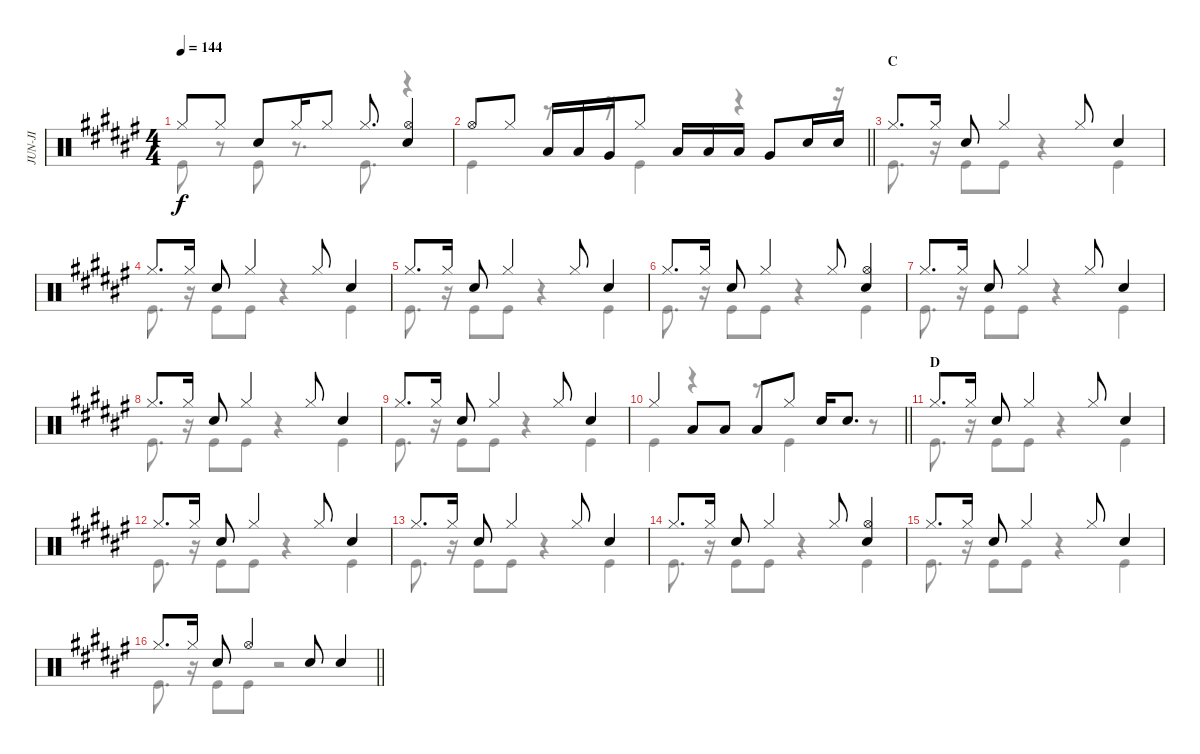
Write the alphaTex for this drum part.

\track ("JUN-JI" "JUN-JI") {instrument percussion}
\staff {score}
\articulation defaults
\voice
\ts (4 4)
\tempo 144
\clef neutral
\ks d#minor "Hi-Hat (closed)".8{dy f} "Hi-Hat (closed)".8 "Snare (hit) 2".8 "Hi-Hat (closed)".16 "Hi-Hat (closed)".8 "Hi-Hat (closed)".8{d}
("Hi-Hat (open)" "Snare (hit) 2").4 |
\barLineRight lightlight "Hi-Hat (open)".8 "Hi-Hat (closed)".8 "Low Tom (hit)".16 "Low Tom (hit)".16 "Very Low Tom (hit)".16 "Hi-Hat (closed)".8 "Low Tom (hit)".16 "Low Tom (hit)".16 "Low Tom (hit)".16 "Very Low Tom (hit)".8 "Snare (hit) 2".16 "Snare (hit) 2".16
|
\section ("" "C")
"Hi-Hat (closed)".8{d} "Hi-Hat (closed)".16 "Snare (hit) 2".8 "Hi-Hat (closed)".4 "Hi-Hat (closed)".8 "Snare (hit) 2".4 |
"Hi-Hat (closed)".8{d} "Hi-Hat (closed)".16 "Snare (hit) 2".8 "Hi-Hat (closed)".4 "Hi-Hat (closed)".8 "Snare (hit) 2".4 |
"Hi-Hat (closed)".8{d} "Hi-Hat (closed)".16 "Snare (hit) 2".8 "Hi-Hat (closed)".4 "Hi-Hat (closed)".8 "Snare (hit) 2".4 |
"Hi-Hat (closed)".8{d} "Hi-Hat (closed)".16 "Snare (hit) 2".8 "Hi-Hat (closed)".4 "Hi-Hat (closed)".8 ("Hi-Hat (open)" "Snare (hit) 2").4 |
"Hi-Hat (closed)".8{d} "Hi-Hat (closed)".16 "Snare (hit) 2".8 "Hi-Hat (closed)".4 "Hi-Hat (closed)".8 "Snare (hit) 2".4 |
"Hi-Hat (closed)".8{d} "Hi-Hat (closed)".16 "Snare (hit) 2".8 "Hi-Hat (closed)".4 "Hi-Hat (closed)".8 "Snare (hit) 2".4 |
"Hi-Hat (closed)".8{d} "Hi-Hat (closed)".16 "Snare (hit) 2".8 "Hi-Hat (closed)".4 "Hi-Hat (closed)".8 "Snare (hit) 2".4 |
\barLineRight lightlight "Hi-Hat (closed)".4 "Low Tom (hit)".8 "Low Tom (hit)".8 "Low Tom (hit)".8 "Hi-Hat (closed)".8 "Snare (hit) 2".16 "Snare (hit) 2".8{d}
|
\section ("" "D")
"Hi-Hat (closed)".8{d} "Hi-Hat (closed)".16 "Snare (hit) 2".8 "Hi-Hat (closed)".4 "Hi-Hat (closed)".8 "Snare (hit) 2".4 |
"Hi-Hat (closed)".8{d} "Hi-Hat (closed)".16 "Snare (hit) 2".8 "Hi-Hat (closed)".4 "Hi-Hat (closed)".8 "Snare (hit) 2".4 |
"Hi-Hat (closed)".8{d} "Hi-Hat (closed)".16 "Snare (hit) 2".8 "Hi-Hat (closed)".4 "Hi-Hat (closed)".8 "Snare (hit) 2".4 |
"Hi-Hat (closed)".8{d} "Hi-Hat (closed)".16 "Snare (hit) 2".8 "Hi-Hat (closed)".4 "Hi-Hat (closed)".8 ("Hi-Hat (open)" "Snare (hit) 2").4 |
"Hi-Hat (closed)".8{d} "Hi-Hat (closed)".16 "Snare (hit) 2".8 "Hi-Hat (closed)".4 "Hi-Hat (closed)".8 "Snare (hit) 2".4 |
\barLineRight lightlight "Hi-Hat (closed)".8{d} "Hi-Hat (closed)".16 "Snare (hit) 2".8 "Hi-Hat (open)".4 "Snare (hit) 2".8 "Snare (hit) 2".4
\voice
\clef neutral
\ottava regular
\simile none
\ks d#minor "Kick (hit)".8{dy f}
r.8 "Kick (hit)".8 r.8{d} "Kick (hit)".8{d} r.4 |
\barLineRight lightlight "Kick (hit)".4
r.8 r.16 "Kick (hit)".4 r.4 r.16 |
"Kick (hit)".8{d} r.16 "Kick (hit)".8 "Kick (hit)".8 r.4 "Kick (hit)".4 |
"Kick (hit)".8{d} r.16 "Kick (hit)".8 "Kick (hit)".8 r.4 "Kick (hit)".4 |
"Kick (hit)".8{d} r.16 "Kick (hit)".8 "Kick (hit)".8 r.4 "Kick (hit)".4 |
"Kick (hit)".8{d} r.16 "Kick (hit)".8 "Kick (hit)".8 r.4 "Kick (hit)".4 |
"Kick (hit)".8{d} r.16 "Kick (hit)".8 "Kick (hit)".8 r.4 "Kick (hit)".4 |
"Kick (hit)".8{d} r.16 "Kick (hit)".8 "Kick (hit)".8 r.4 "Kick (hit)".4 |
"Kick (hit)".8{d} r.16 "Kick (hit)".8 "Kick (hit)".8 r.4 "Kick (hit)".4 |
\barLineRight lightlight "Kick (hit)".4
r.4 r.8 "Kick (hit)".4 r.8 |
"Kick (hit)".8{d} r.16 "Kick (hit)".8 "Kick (hit)".8 r.4 "Kick (hit)".4 |
"Kick (hit)".8{d} r.16 "Kick (hit)".8 "Kick (hit)".8 r.4 "Kick (hit)".4 |
"Kick (hit)".8{d} r.16 "Kick (hit)".8 "Kick (hit)".8 r.4 "Kick (hit)".4 |
"Kick (hit)".8{d} r.16 "Kick (hit)".8 "Kick (hit)".8 r.4 "Kick (hit)".4 |
"Kick (hit)".8{d} r.16 "Kick (hit)".8 "Kick (hit)".8 r.4 "Kick (hit)".4 |
\barLineRight lightlight "Kick (hit)".8{d}
r.16 "Kick (hit)".8 "Kick (hit)".8 r.2
